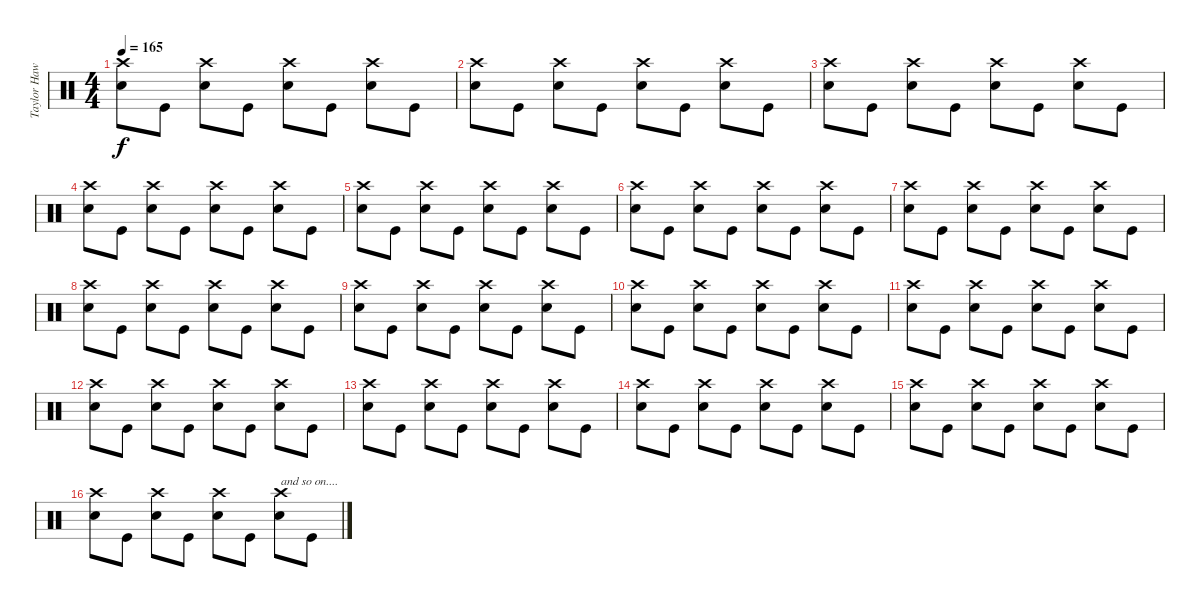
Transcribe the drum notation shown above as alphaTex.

\track ("Taylor Hawkins - Drums" "Taylor Haw") {instrument percussion}
\staff {score}
\articulation defaults
\ts (4 4)
\tempo 165
\clef neutral
\ks c
("Crash high (hit)" "Electric Snare (hit)").8{dy f} "Kick (hit)".8 ("Crash high (hit)" "Electric Snare (hit)").8 "Kick (hit)".8 ("Crash high (hit)" "Electric Snare (hit)").8 "Kick (hit)".8 ("Crash high (hit)" "Electric Snare (hit)").8 "Kick (hit)".8 |
("Crash high (hit)" "Electric Snare (hit)").8 "Kick (hit)".8 ("Crash high (hit)" "Electric Snare (hit)").8 "Kick (hit)".8 ("Crash high (hit)" "Electric Snare (hit)").8 "Kick (hit)".8 ("Crash high (hit)" "Electric Snare (hit)").8 "Kick (hit)".8 |
("Crash high (hit)" "Electric Snare (hit)").8 "Kick (hit)".8 ("Crash high (hit)" "Electric Snare (hit)").8 "Kick (hit)".8 ("Crash high (hit)" "Electric Snare (hit)").8 "Kick (hit)".8 ("Crash high (hit)" "Electric Snare (hit)").8 "Kick (hit)".8 |
("Crash high (hit)" "Electric Snare (hit)").8 "Kick (hit)".8 ("Crash high (hit)" "Electric Snare (hit)").8 "Kick (hit)".8 ("Crash high (hit)" "Electric Snare (hit)").8 "Kick (hit)".8 ("Crash high (hit)" "Electric Snare (hit)").8 "Kick (hit)".8 |
("Crash high (hit)" "Electric Snare (hit)").8 "Kick (hit)".8 ("Crash high (hit)" "Electric Snare (hit)").8 "Kick (hit)".8 ("Crash high (hit)" "Electric Snare (hit)").8 "Kick (hit)".8 ("Crash high (hit)" "Electric Snare (hit)").8 "Kick (hit)".8 |
("Crash high (hit)" "Electric Snare (hit)").8 "Kick (hit)".8 ("Crash high (hit)" "Electric Snare (hit)").8 "Kick (hit)".8 ("Crash high (hit)" "Electric Snare (hit)").8 "Kick (hit)".8 ("Crash high (hit)" "Electric Snare (hit)").8 "Kick (hit)".8 |
("Crash high (hit)" "Electric Snare (hit)").8 "Kick (hit)".8 ("Crash high (hit)" "Electric Snare (hit)").8 "Kick (hit)".8 ("Crash high (hit)" "Electric Snare (hit)").8 "Kick (hit)".8 ("Crash high (hit)" "Electric Snare (hit)").8 "Kick (hit)".8 |
("Crash high (hit)" "Electric Snare (hit)").8 "Kick (hit)".8 ("Crash high (hit)" "Electric Snare (hit)").8 "Kick (hit)".8 ("Crash high (hit)" "Electric Snare (hit)").8 "Kick (hit)".8 ("Crash high (hit)" "Electric Snare (hit)").8 "Kick (hit)".8 |
("Crash high (hit)" "Electric Snare (hit)").8 "Kick (hit)".8 ("Crash high (hit)" "Electric Snare (hit)").8 "Kick (hit)".8 ("Crash high (hit)" "Electric Snare (hit)").8 "Kick (hit)".8 ("Crash high (hit)" "Electric Snare (hit)").8 "Kick (hit)".8 |
("Crash high (hit)" "Electric Snare (hit)").8 "Kick (hit)".8 ("Crash high (hit)" "Electric Snare (hit)").8 "Kick (hit)".8 ("Crash high (hit)" "Electric Snare (hit)").8 "Kick (hit)".8 ("Crash high (hit)" "Electric Snare (hit)").8 "Kick (hit)".8 |
("Crash high (hit)" "Electric Snare (hit)").8 "Kick (hit)".8 ("Crash high (hit)" "Electric Snare (hit)").8 "Kick (hit)".8 ("Crash high (hit)" "Electric Snare (hit)").8 "Kick (hit)".8 ("Crash high (hit)" "Electric Snare (hit)").8 "Kick (hit)".8 |
("Crash high (hit)" "Electric Snare (hit)").8 "Kick (hit)".8 ("Crash high (hit)" "Electric Snare (hit)").8 "Kick (hit)".8 ("Crash high (hit)" "Electric Snare (hit)").8 "Kick (hit)".8 ("Crash high (hit)" "Electric Snare (hit)").8 "Kick (hit)".8 |
("Crash high (hit)" "Electric Snare (hit)").8 "Kick (hit)".8 ("Crash high (hit)" "Electric Snare (hit)").8 "Kick (hit)".8 ("Crash high (hit)" "Electric Snare (hit)").8 "Kick (hit)".8 ("Crash high (hit)" "Electric Snare (hit)").8 "Kick (hit)".8 |
("Crash high (hit)" "Electric Snare (hit)").8 "Kick (hit)".8 ("Crash high (hit)" "Electric Snare (hit)").8 "Kick (hit)".8 ("Crash high (hit)" "Electric Snare (hit)").8 "Kick (hit)".8 ("Crash high (hit)" "Electric Snare (hit)").8 "Kick (hit)".8 |
("Crash high (hit)" "Electric Snare (hit)").8 "Kick (hit)".8 ("Crash high (hit)" "Electric Snare (hit)").8 "Kick (hit)".8 ("Crash high (hit)" "Electric Snare (hit)").8 "Kick (hit)".8 ("Crash high (hit)" "Electric Snare (hit)").8 "Kick (hit)".8 |
("Crash high (hit)" "Electric Snare (hit)").8 "Kick (hit)".8 ("Crash high (hit)" "Electric Snare (hit)").8 "Kick (hit)".8 ("Crash high (hit)" "Electric Snare (hit)").8 "Kick (hit)".8 ("Crash high (hit)" "Electric Snare (hit)").8{txt "and so on...."} "Kick (hit)".8
